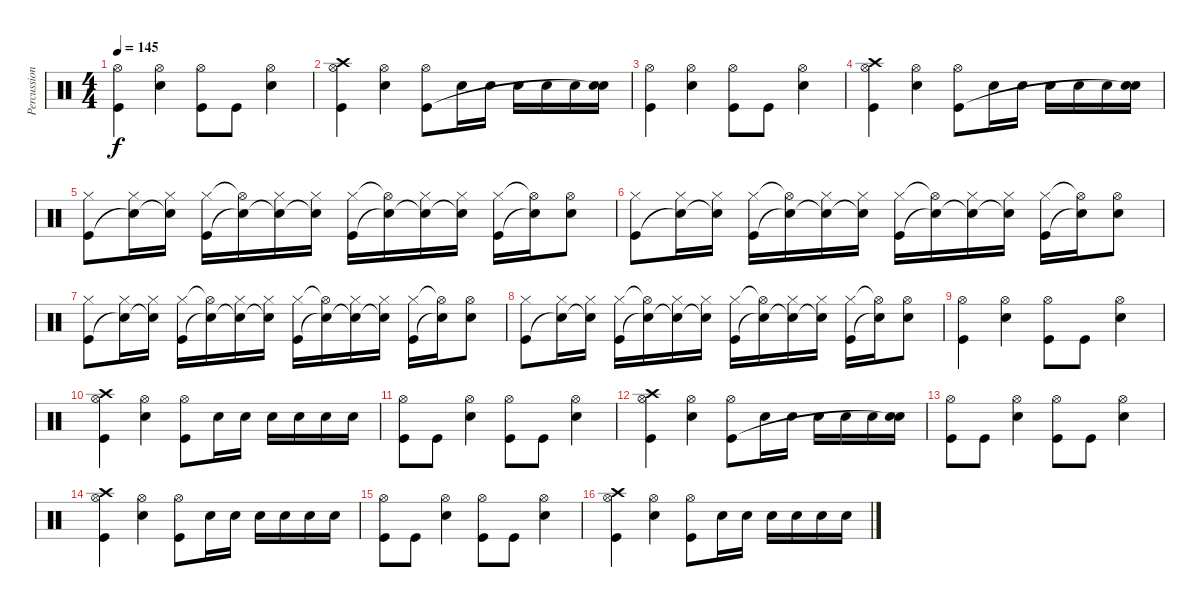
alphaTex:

\track ("Percussion" "Percussion") {instrument percussion}
\staff {score}
\articulation defaults
\ts (4 4)
\tempo 145
\clef neutral
\ks c
("Kick (hit)" "Hi-Hat (open)").4{dy f} ("Hi-Hat (open)" "Snare (hit) 2").4 ("Hi-Hat (open)" "Kick (hit)").8 "Kick (hit)".8 ("Hi-Hat (open)" "Snare (hit) 2").4 |
("Kick (hit)" "Hi-Hat (open)" "Crash high (hit)").4 ("Hi-Hat (open)" "Snare (hit) 2").4 ("Hi-Hat (open)" "Kick (hit)").8 "Snare (hit) 2".16 "Snare (hit) 2".16 "Snare (hit) 2".16 "Snare (hit) 2".16 "Snare (hit) 2".16 ("Snare (hit) 2" "Snare (hit)"{t}).16 |
("Kick (hit)" "Hi-Hat (open)").4 ("Hi-Hat (open)" "Snare (hit) 2").4 ("Hi-Hat (open)" "Kick (hit)").8 "Kick (hit)".8 ("Hi-Hat (open)" "Snare (hit) 2").4 |
("Kick (hit)" "Hi-Hat (open)" "Crash high (hit)").4 ("Hi-Hat (open)" "Snare (hit) 2").4 ("Hi-Hat (open)" "Kick (hit)").8 "Snare (hit) 2".16 "Snare (hit) 2".16 "Snare (hit) 2".16 "Snare (hit) 2".16 "Snare (hit) 2".16 ("Snare (hit) 2" "Snare (hit)"{t}).16 |
("Hi-Hat (closed)" "Kick (hit)").8 ("Hi-Hat (closed)" "Snare (hit)"{t}).16 ("Hi-Hat (closed)" "Snare (hit)"{t}).16 ("Hi-Hat (closed)" "Kick (hit)").16 ("Hi-Hat (open)"{t} "Snare (hit)"{t}).16 ("Hi-Hat (closed)" "Snare (hit)"{t}).16 ("Hi-Hat (closed)" "Snare (hit)"{t}).16 ("Hi-Hat (closed)" "Kick (hit)").16 ("Hi-Hat (open)"{t} "Snare (hit)"{t}).16 ("Hi-Hat (closed)" "Snare (hit)"{t}).16 ("Hi-Hat (closed)" "Snare (hit)"{t}).16 ("Hi-Hat (closed)" "Kick (hit)").16 ("Hi-Hat (open)"{t} "Snare (hit)"{t}).16 ("Hi-Hat (open)" "Electric Snare (hit)").8 |
("Hi-Hat (closed)" "Kick (hit)").8 ("Hi-Hat (closed)" "Snare (hit)"{t}).16 ("Hi-Hat (closed)" "Snare (hit)"{t}).16 ("Hi-Hat (closed)" "Kick (hit)").16 ("Hi-Hat (open)"{t} "Snare (hit)"{t}).16 ("Hi-Hat (closed)" "Snare (hit)"{t}).16 ("Hi-Hat (closed)" "Snare (hit)"{t}).16 ("Hi-Hat (closed)" "Kick (hit)").16 ("Hi-Hat (open)"{t} "Snare (hit)"{t}).16 ("Hi-Hat (closed)" "Snare (hit)"{t}).16 ("Hi-Hat (closed)" "Snare (hit)"{t}).16 ("Hi-Hat (closed)" "Kick (hit)").16 ("Hi-Hat (open)"{t} "Snare (hit)"{t}).16 ("Hi-Hat (open)" "Electric Snare (hit)").8 |
("Hi-Hat (closed)" "Kick (hit)").8 ("Hi-Hat (closed)" "Snare (hit)"{t}).16 ("Hi-Hat (closed)" "Snare (hit)"{t}).16 ("Hi-Hat (closed)" "Kick (hit)").16 ("Hi-Hat (open)"{t} "Snare (hit)"{t}).16 ("Hi-Hat (closed)" "Snare (hit)"{t}).16 ("Hi-Hat (closed)" "Snare (hit)"{t}).16 ("Hi-Hat (closed)" "Kick (hit)").16 ("Hi-Hat (open)"{t} "Snare (hit)"{t}).16 ("Hi-Hat (closed)" "Snare (hit)"{t}).16 ("Hi-Hat (closed)" "Snare (hit)"{t}).16 ("Hi-Hat (closed)" "Kick (hit)").16 ("Hi-Hat (open)"{t} "Snare (hit)"{t}).16 ("Hi-Hat (open)" "Electric Snare (hit)").8 |
("Hi-Hat (closed)" "Kick (hit)").8 ("Hi-Hat (closed)" "Snare (hit)"{t}).16 ("Hi-Hat (closed)" "Snare (hit)"{t}).16 ("Hi-Hat (closed)" "Kick (hit)").16 ("Hi-Hat (open)"{t} "Snare (hit)"{t}).16 ("Hi-Hat (closed)" "Snare (hit)"{t}).16 ("Hi-Hat (closed)" "Snare (hit)"{t}).16 ("Hi-Hat (closed)" "Kick (hit)").16 ("Hi-Hat (open)"{t} "Snare (hit)"{t}).16 ("Hi-Hat (closed)" "Snare (hit)"{t}).16 ("Hi-Hat (closed)" "Snare (hit)"{t}).16 ("Hi-Hat (closed)" "Kick (hit)").16 ("Hi-Hat (open)"{t} "Snare (hit)"{t}).16 ("Hi-Hat (open)" "Electric Snare (hit)").8 |
("Kick (hit)" "Hi-Hat (open)").4 ("Hi-Hat (open)" "Snare (hit) 2").4 ("Hi-Hat (open)" "Kick (hit)").8 "Kick (hit)".8 ("Hi-Hat (open)" "Snare (hit) 2").4 |
("Kick (hit)" "Hi-Hat (open)" "Crash high (hit)").4 ("Hi-Hat (open)" "Snare (hit) 2").4 ("Hi-Hat (open)" "Kick (hit)").8 "Snare (hit) 2".16 "Snare (hit) 2".16 "Snare (hit) 2".16 "Snare (hit) 2".16 "Snare (hit) 2".16 "Snare (hit) 2".16 |
("Hi-Hat (open)" "Kick (hit)").8 "Kick (hit)".8 ("Hi-Hat (open)" "Snare (hit) 2").4 ("Hi-Hat (open)" "Kick (hit)").8 "Kick (hit)".8 ("Hi-Hat (open)" "Snare (hit) 2").4 |
("Kick (hit)" "Hi-Hat (open)" "Crash high (hit)").4 ("Hi-Hat (open)" "Snare (hit) 2").4 ("Hi-Hat (open)" "Kick (hit)").8 "Snare (hit) 2".16 "Snare (hit) 2".16 "Snare (hit) 2".16 "Snare (hit) 2".16 "Snare (hit) 2".16 ("Snare (hit) 2" "Snare (hit)"{t}).16 |
("Hi-Hat (open)" "Kick (hit)").8 "Kick (hit)".8 ("Hi-Hat (open)" "Snare (hit) 2").4 ("Hi-Hat (open)" "Kick (hit)").8 "Kick (hit)".8 ("Hi-Hat (open)" "Snare (hit) 2").4 |
("Kick (hit)" "Hi-Hat (open)" "Crash high (hit)").4 ("Hi-Hat (open)" "Snare (hit) 2").4 ("Hi-Hat (open)" "Kick (hit)").8 "Snare (hit) 2".16 "Snare (hit) 2".16 "Snare (hit) 2".16 "Snare (hit) 2".16 "Snare (hit) 2".16 "Snare (hit) 2".16 |
("Hi-Hat (open)" "Kick (hit)").8 "Kick (hit)".8 ("Hi-Hat (open)" "Snare (hit) 2").4 ("Hi-Hat (open)" "Kick (hit)").8 "Kick (hit)".8 ("Hi-Hat (open)" "Snare (hit) 2").4 |
("Kick (hit)" "Hi-Hat (open)" "Crash high (hit)").4 ("Hi-Hat (open)" "Snare (hit) 2").4 ("Hi-Hat (open)" "Kick (hit)").8 "Snare (hit) 2".16 "Snare (hit) 2".16 "Snare (hit) 2".16 "Snare (hit) 2".16 "Snare (hit) 2".16 "Snare (hit) 2".16
